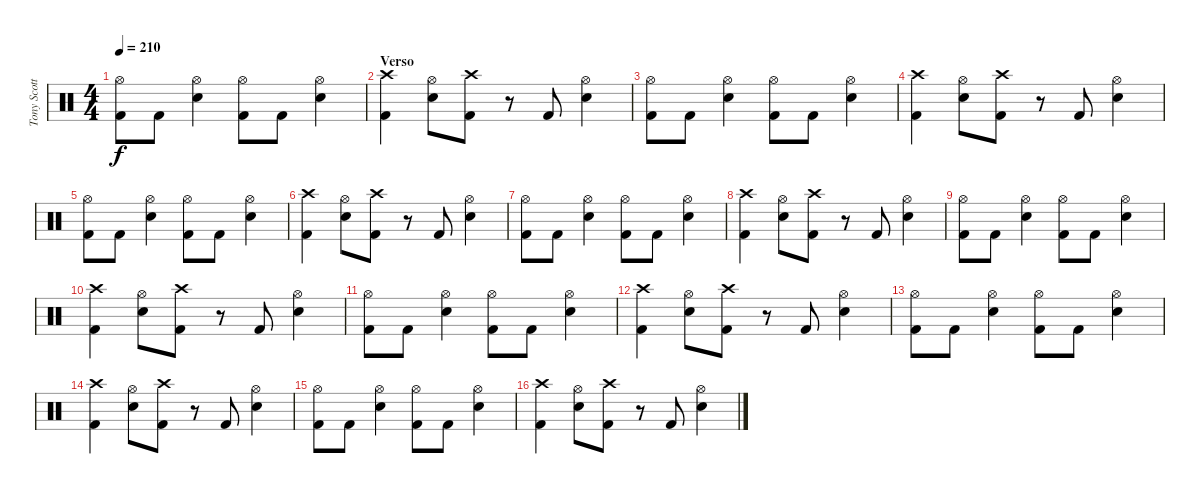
\track ("Tony Scotto" "Tony Scott") {instrument percussion}
\staff {score}
\articulation defaults
\ts (4 4)
\tempo 210
\clef neutral
\ks c
("Hi-Hat (open)" "Kick (hit) 2").8{dy f} "Kick (hit) 2".8 ("Hi-Hat (open)" "Snare (hit) 2").4 ("Hi-Hat (open)" "Kick (hit) 2").8 "Kick (hit) 2".8 ("Hi-Hat (open)" "Snare (hit) 2").4 |
\section ("" "Verso")
("Crash high (hit)" "Kick (hit) 2").4 ("Hi-Hat (open)" "Snare (hit) 2").8 ("Crash high (hit)" "Kick (hit) 2").8 r.8 "Kick (hit) 2".8 ("Hi-Hat (open)" "Snare (hit) 2").4 |
("Hi-Hat (open)" "Kick (hit) 2").8 "Kick (hit) 2".8 ("Hi-Hat (open)" "Snare (hit) 2").4 ("Hi-Hat (open)" "Kick (hit) 2").8 "Kick (hit) 2".8 ("Hi-Hat (open)" "Snare (hit) 2").4 |
("Crash high (hit)" "Kick (hit) 2").4 ("Hi-Hat (open)" "Snare (hit) 2").8 ("Crash high (hit)" "Kick (hit) 2").8 r.8 "Kick (hit) 2".8 ("Hi-Hat (open)" "Snare (hit) 2").4 |
("Hi-Hat (open)" "Kick (hit) 2").8 "Kick (hit) 2".8 ("Hi-Hat (open)" "Snare (hit) 2").4 ("Hi-Hat (open)" "Kick (hit) 2").8 "Kick (hit) 2".8 ("Hi-Hat (open)" "Snare (hit) 2").4 |
("Crash high (hit)" "Kick (hit) 2").4 ("Hi-Hat (open)" "Snare (hit) 2").8 ("Crash high (hit)" "Kick (hit) 2").8 r.8 "Kick (hit) 2".8 ("Hi-Hat (open)" "Snare (hit) 2").4 |
("Hi-Hat (open)" "Kick (hit) 2").8 "Kick (hit) 2".8 ("Hi-Hat (open)" "Snare (hit) 2").4 ("Hi-Hat (open)" "Kick (hit) 2").8 "Kick (hit) 2".8 ("Hi-Hat (open)" "Snare (hit) 2").4 |
("Crash high (hit)" "Kick (hit) 2").4 ("Hi-Hat (open)" "Snare (hit) 2").8 ("Crash high (hit)" "Kick (hit) 2").8 r.8 "Kick (hit) 2".8 ("Hi-Hat (open)" "Snare (hit) 2").4 |
("Hi-Hat (open)" "Kick (hit) 2").8 "Kick (hit) 2".8 ("Hi-Hat (open)" "Snare (hit) 2").4 ("Hi-Hat (open)" "Kick (hit) 2").8 "Kick (hit) 2".8 ("Hi-Hat (open)" "Snare (hit) 2").4 |
("Crash high (hit)" "Kick (hit) 2").4 ("Hi-Hat (open)" "Snare (hit) 2").8 ("Crash high (hit)" "Kick (hit) 2").8 r.8 "Kick (hit) 2".8 ("Hi-Hat (open)" "Snare (hit) 2").4 |
("Hi-Hat (open)" "Kick (hit) 2").8 "Kick (hit) 2".8 ("Hi-Hat (open)" "Snare (hit) 2").4 ("Hi-Hat (open)" "Kick (hit) 2").8 "Kick (hit) 2".8 ("Hi-Hat (open)" "Snare (hit) 2").4 |
("Crash high (hit)" "Kick (hit) 2").4 ("Hi-Hat (open)" "Snare (hit) 2").8 ("Crash high (hit)" "Kick (hit) 2").8 r.8 "Kick (hit) 2".8 ("Hi-Hat (open)" "Snare (hit) 2").4 |
("Hi-Hat (open)" "Kick (hit) 2").8 "Kick (hit) 2".8 ("Hi-Hat (open)" "Snare (hit) 2").4 ("Hi-Hat (open)" "Kick (hit) 2").8 "Kick (hit) 2".8 ("Hi-Hat (open)" "Snare (hit) 2").4 |
("Crash high (hit)" "Kick (hit) 2").4 ("Hi-Hat (open)" "Snare (hit) 2").8 ("Crash high (hit)" "Kick (hit) 2").8 r.8 "Kick (hit) 2".8 ("Hi-Hat (open)" "Snare (hit) 2").4 |
("Hi-Hat (open)" "Kick (hit) 2").8 "Kick (hit) 2".8 ("Hi-Hat (open)" "Snare (hit) 2").4 ("Hi-Hat (open)" "Kick (hit) 2").8 "Kick (hit) 2".8 ("Hi-Hat (open)" "Snare (hit) 2").4 |
("Crash high (hit)" "Kick (hit) 2").4 ("Hi-Hat (open)" "Snare (hit) 2").8 ("Crash high (hit)" "Kick (hit) 2").8 r.8 "Kick (hit) 2".8 ("Hi-Hat (open)" "Snare (hit) 2").4
